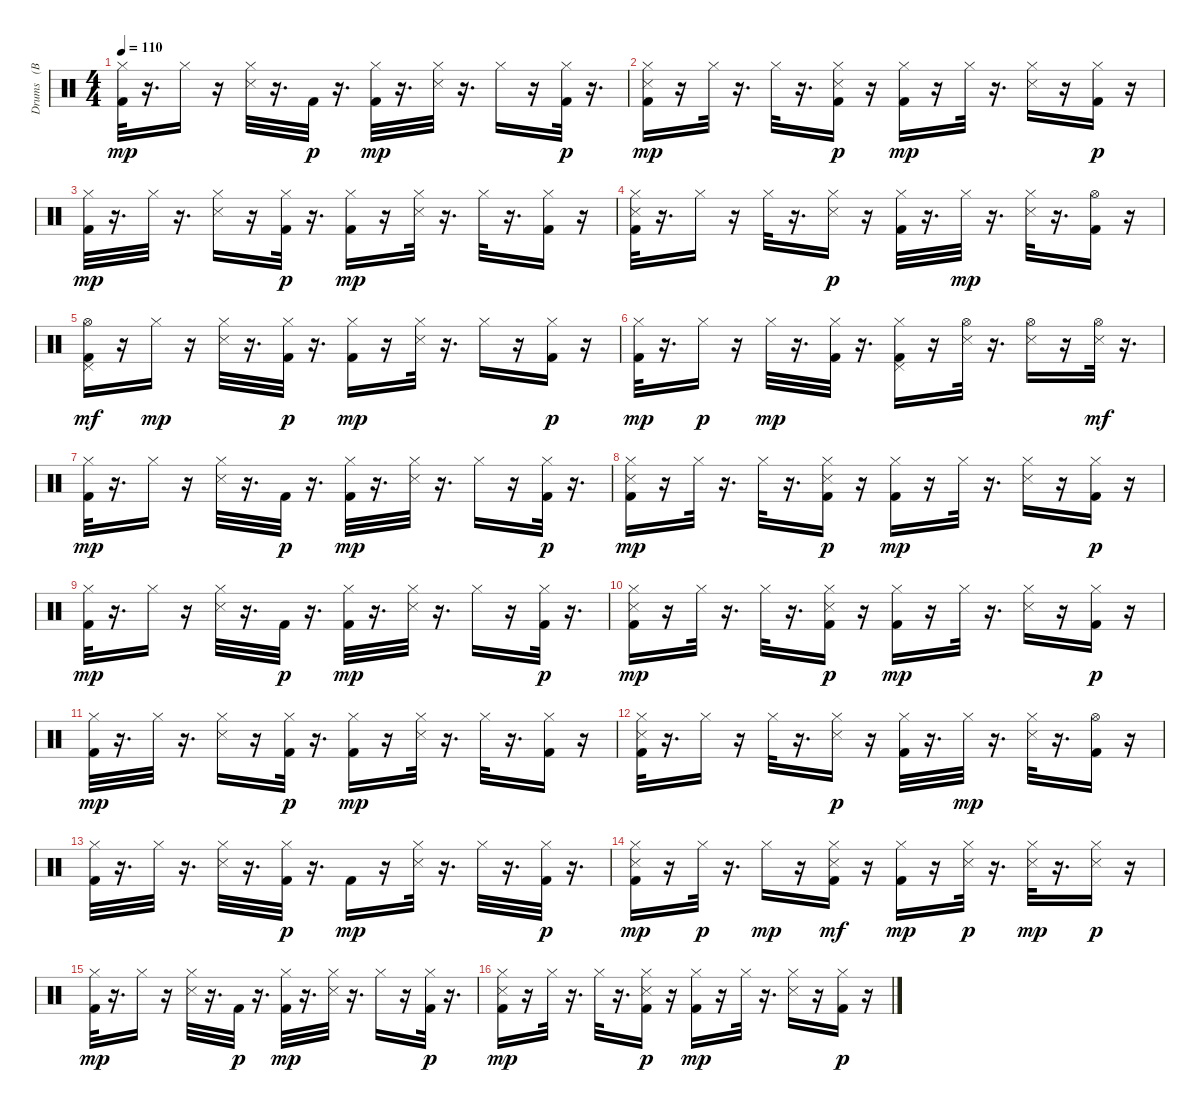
\track ("Drums   (BB)" "Drums   (B") {instrument percussion}
\staff {score}
\articulation defaults
\ts (4 4)
\tempo 110
\clef neutral
\ks c
("Kick (hit) 2" "Hi-Hat (closed)").32{dy mp} r.16{d} "Hi-Hat (closed)".16 r.16 ("Hi-Hat (closed)" "Snare (side stick) 3").32 r.16{d} "Kick (hit) 2".32{dy p} r.16{d} ("Kick (hit) 2" "Hi-Hat (closed)").32{dy mp} r.16{d} ("Snare (side stick) 3" "Hi-Hat (closed)").32 r.16{d} "Hi-Hat (closed)".16 r.16 ("Hi-Hat (closed)" "Kick (hit) 2").32{dy p} r.16{d} |
("Kick (hit) 2" "Snare (side stick) 3" "Hi-Hat (closed)").16{dy mp} r.16 "Hi-Hat (closed)".32 r.16{d} "Hi-Hat (closed)".32 r.16{d} ("Snare (side stick) 3" "Hi-Hat (closed)" "Kick (hit) 2").16{dy p} r.16 ("Hi-Hat (closed)" "Kick (hit) 2").16{dy mp} r.16 "Hi-Hat (closed)".32 r.16{d} ("Snare (side stick) 3" "Hi-Hat (closed)").16 r.16 ("Hi-Hat (closed)" "Kick (hit) 2").16{dy p} r.16 |
("Kick (hit) 2" "Hi-Hat (closed)").32{dy mp} r.16{d} "Hi-Hat (closed)".32 r.16{d} ("Snare (side stick) 3" "Hi-Hat (closed)").16 r.16 ("Hi-Hat (closed)" "Kick (hit) 2").32{dy p} r.16{d} ("Kick (hit) 2" "Hi-Hat (closed)").16{dy mp} r.16 ("Snare (side stick) 3" "Hi-Hat (closed)").32 r.16{d} "Hi-Hat (closed)".32 r.16{d} ("Kick (hit) 2" "Hi-Hat (closed)").16 r.16 |
("Kick (hit) 2" "Snare (side stick) 3" "Hi-Hat (closed)").32 r.16{d} "Hi-Hat (closed)".16 r.16 "Hi-Hat (closed)".32 r.16{d} ("Hi-Hat (closed)" "Snare (side stick) 3").16{dy p} r.16 ("Hi-Hat (closed)" "Kick (hit) 2").32 r.16{d} "Hi-Hat (closed)".32{dy mp} r.16{d} ("Snare (side stick) 3" "Hi-Hat (closed)").32 r.16{d} ("Kick (hit) 2" "Hi-Hat (open)").16 r.16 |
("Kick (hit) 2" "Hi-Hat (open)" "Pedal Hi-Hat (hit)").16{dy mf} r.16 "Hi-Hat (closed)".16{dy mp} r.16 ("Snare (side stick) 3" "Hi-Hat (closed)").32 r.16{d} ("Hi-Hat (closed)" "Kick (hit) 2").32{dy p} r.16{d} ("Hi-Hat (closed)" "Kick (hit) 2").16{dy mp} r.16 ("Snare (side stick) 3" "Hi-Hat (closed)").32 r.16{d} "Hi-Hat (closed)".16 r.16 ("Hi-Hat (closed)" "Kick (hit) 2").16{dy p} r.16 |
("Hi-Hat (closed)" "Kick (hit) 2").32{dy mp} r.16{d} "Hi-Hat (closed)".16{dy p} r.16 "Hi-Hat (closed)".32{dy mp} r.16{d} ("Kick (hit) 2" "Hi-Hat (closed)").32 r.16{d} ("Pedal Hi-Hat (hit)" "Kick (hit) 2" "Hi-Hat (closed)").16 r.16 ("Hi-Hat (open)" "Snare (side stick) 3").32 r.16{d} ("Hi-Hat (open)" "Snare (side stick) 3").16 r.16 ("Hi-Hat (open)" "Snare (side stick) 3").32{dy mf} r.16{d} |
("Kick (hit) 2" "Hi-Hat (closed)").32{dy mp} r.16{d} "Hi-Hat (closed)".16 r.16 ("Hi-Hat (closed)" "Snare (side stick) 3").32 r.16{d} "Kick (hit) 2".32{dy p} r.16{d} ("Kick (hit) 2" "Hi-Hat (closed)").32{dy mp} r.16{d} ("Snare (side stick) 3" "Hi-Hat (closed)").32 r.16{d} "Hi-Hat (closed)".16 r.16 ("Hi-Hat (closed)" "Kick (hit) 2").32{dy p} r.16{d} |
("Kick (hit) 2" "Snare (side stick) 3" "Hi-Hat (closed)").16{dy mp} r.16 "Hi-Hat (closed)".32 r.16{d} "Hi-Hat (closed)".32 r.16{d} ("Snare (side stick) 3" "Hi-Hat (closed)" "Kick (hit) 2").16{dy p} r.16 ("Hi-Hat (closed)" "Kick (hit) 2").16{dy mp} r.16 "Hi-Hat (closed)".32 r.16{d} ("Snare (side stick) 3" "Hi-Hat (closed)").16 r.16 ("Hi-Hat (closed)" "Kick (hit) 2").16{dy p} r.16 |
("Kick (hit) 2" "Hi-Hat (closed)").32{dy mp} r.16{d} "Hi-Hat (closed)".16 r.16 ("Hi-Hat (closed)" "Snare (side stick) 3").32 r.16{d} "Kick (hit) 2".32{dy p} r.16{d} ("Kick (hit) 2" "Hi-Hat (closed)").32{dy mp} r.16{d} ("Snare (side stick) 3" "Hi-Hat (closed)").32 r.16{d} "Hi-Hat (closed)".16 r.16 ("Hi-Hat (closed)" "Kick (hit) 2").32{dy p} r.16{d} |
("Kick (hit) 2" "Snare (side stick) 3" "Hi-Hat (closed)").16{dy mp} r.16 "Hi-Hat (closed)".32 r.16{d} "Hi-Hat (closed)".32 r.16{d} ("Snare (side stick) 3" "Hi-Hat (closed)" "Kick (hit) 2").16{dy p} r.16 ("Hi-Hat (closed)" "Kick (hit) 2").16{dy mp} r.16 "Hi-Hat (closed)".32 r.16{d} ("Snare (side stick) 3" "Hi-Hat (closed)").16 r.16 ("Hi-Hat (closed)" "Kick (hit) 2").16{dy p} r.16 |
("Kick (hit) 2" "Hi-Hat (closed)").32{dy mp} r.16{d} "Hi-Hat (closed)".32 r.16{d} ("Snare (side stick) 3" "Hi-Hat (closed)").16 r.16 ("Hi-Hat (closed)" "Kick (hit) 2").32{dy p} r.16{d} ("Kick (hit) 2" "Hi-Hat (closed)").16{dy mp} r.16 ("Snare (side stick) 3" "Hi-Hat (closed)").32 r.16{d} "Hi-Hat (closed)".32 r.16{d} ("Kick (hit) 2" "Hi-Hat (closed)").16 r.16 |
("Kick (hit) 2" "Snare (side stick) 3" "Hi-Hat (closed)").32 r.16{d} "Hi-Hat (closed)".16 r.16 "Hi-Hat (closed)".32 r.16{d} ("Hi-Hat (closed)" "Snare (side stick) 3").16{dy p} r.16 ("Hi-Hat (closed)" "Kick (hit) 2").32 r.16{d} "Hi-Hat (closed)".32{dy mp} r.16{d} ("Snare (side stick) 3" "Hi-Hat (closed)").32 r.16{d} ("Kick (hit) 2" "Hi-Hat (open)").16 r.16 |
("Kick (hit) 2" "Hi-Hat (closed)").32 r.16{d} "Hi-Hat (closed)".32 r.16{d} ("Snare (side stick) 3" "Hi-Hat (closed)").32 r.16{d} ("Hi-Hat (closed)" "Kick (hit) 2").32{dy p} r.16{d} "Kick (hit) 2".16{dy mp} r.16 ("Snare (side stick) 3" "Hi-Hat (closed)").32 r.16{d} "Hi-Hat (closed)".32 r.16{d} ("Hi-Hat (closed)" "Kick (hit) 2").32{dy p} r.16{d} |
("Kick (hit) 2" "Snare (side stick) 3" "Hi-Hat (closed)").16{dy mp} r.16 "Hi-Hat (closed)".32{dy p} r.16{d} "Hi-Hat (closed)".16{dy mp} r.16 ("Kick (hit) 2" "Hi-Hat (closed)" "Snare (side stick) 3").16{dy mf} r.16 ("Kick (hit) 2" "Hi-Hat (closed)").16{dy mp} r.16 ("Hi-Hat (closed)" "Snare (side stick) 3").32{dy p} r.16{d} ("Snare (side stick) 3" "Hi-Hat (closed)").32{dy mp} r.16{d} ("Hi-Hat (closed)" "Snare (side stick) 3").16{dy p} r.16 |
("Kick (hit) 2" "Hi-Hat (closed)").32{dy mp} r.16{d} "Hi-Hat (closed)".16 r.16 ("Hi-Hat (closed)" "Snare (side stick) 3").32 r.16{d} "Kick (hit) 2".32{dy p} r.16{d} ("Kick (hit) 2" "Hi-Hat (closed)").32{dy mp} r.16{d} ("Snare (side stick) 3" "Hi-Hat (closed)").32 r.16{d} "Hi-Hat (closed)".16 r.16 ("Hi-Hat (closed)" "Kick (hit) 2").32{dy p} r.16{d} |
("Kick (hit) 2" "Snare (side stick) 3" "Hi-Hat (closed)").16{dy mp} r.16 "Hi-Hat (closed)".32 r.16{d} "Hi-Hat (closed)".32 r.16{d} ("Snare (side stick) 3" "Hi-Hat (closed)" "Kick (hit) 2").16{dy p} r.16 ("Hi-Hat (closed)" "Kick (hit) 2").16{dy mp} r.16 "Hi-Hat (closed)".32 r.16{d} ("Snare (side stick) 3" "Hi-Hat (closed)").16 r.16 ("Hi-Hat (closed)" "Kick (hit) 2").16{dy p} r.16
